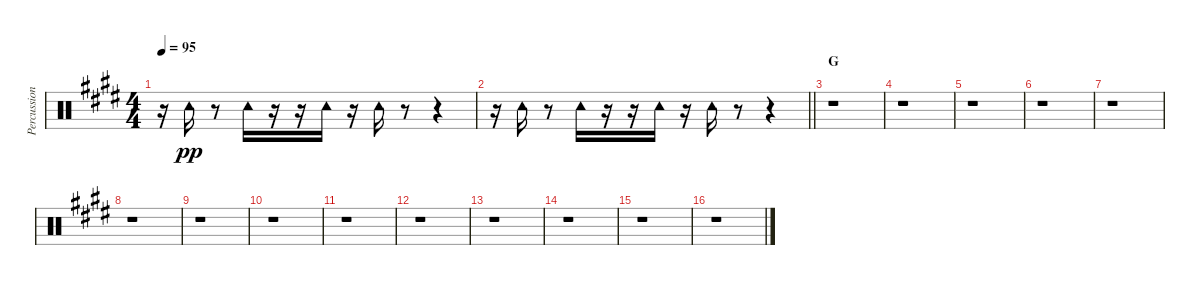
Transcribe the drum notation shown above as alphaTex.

\track ("Percussion" "Percussion") {instrument percussion}
\staff {score}
\articulation defaults
\ts (4 4)
\tempo 95
\clef neutral
\ks e
r.16{dy pp} "Tambourine (hit)".16 r.8 "Tambourine (hit)".16 r.16 r.16 "Tambourine (hit)".16 r.16 "Tambourine (hit)".16 r.8 r.4 |
\barLineRight lightlight
r.16 "Tambourine (hit)".16 r.8 "Tambourine (hit)".16 r.16 r.16 "Tambourine (hit)".16 r.16 "Tambourine (hit)".16 r.8 r.4 |
\section ("" "G")
r.1 |
r.1 |
r.1 |
r.1 |
r.1 |
r.1 |
r.1 |
r.1 |
r.1 |
r.1 |
r.1 |
r.1 |
r.1 |
r.1
